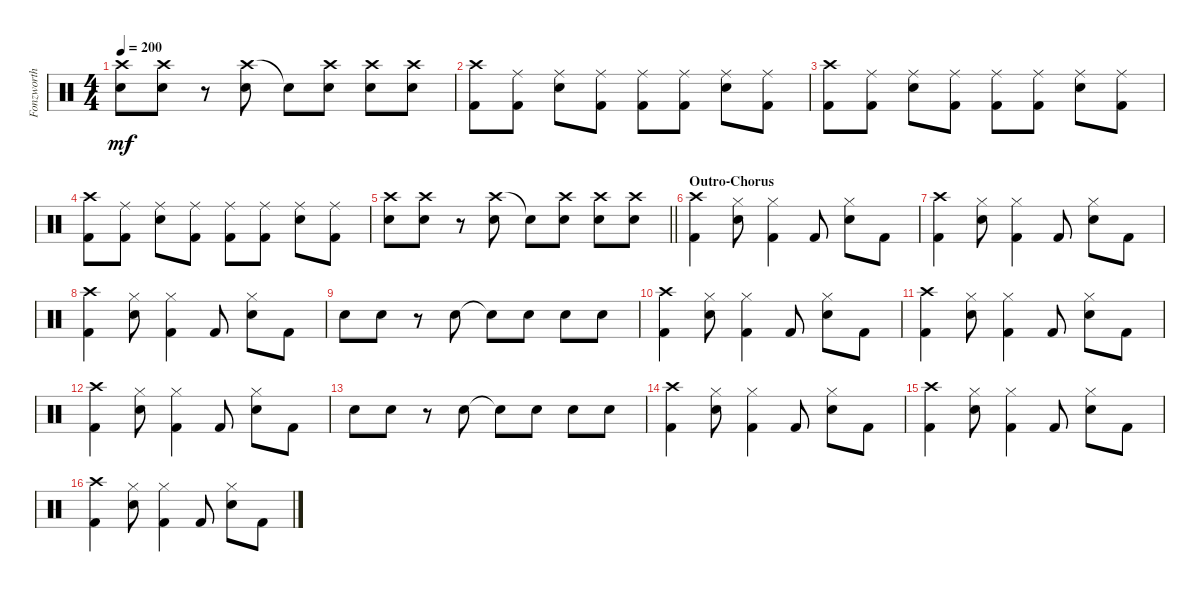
\track ("Fonzworth Fred" "Fonzworth ") {instrument percussion}
\staff {score}
\articulation defaults
\ts (4 4)
\tempo 200
\clef neutral
\ks c
("Crash high (hit)" "Snare (hit) 2").8{dy mf} ("Crash high (hit)" "Snare (hit) 2").8 r.8 ("Crash high (hit)" "Snare (hit) 2").8 "Snare (hit)"{t}.8 ("Crash high (hit)" "Snare (hit) 2").8 ("Crash high (hit)" "Snare (hit) 2").8 ("Crash high (hit)" "Snare (hit) 2").8 |
("Crash high (hit)" "Kick (hit) 2").8 ("Ride (middle)" "Kick (hit) 2").8 ("Ride (middle)" "Snare (hit) 2").8 ("Ride (middle)" "Kick (hit) 2").8 ("Ride (middle)" "Kick (hit) 2").8 ("Ride (middle)" "Kick (hit) 2").8 ("Ride (middle)" "Snare (hit) 2").8 ("Ride (middle)" "Kick (hit) 2").8 |
("Crash high (hit)" "Kick (hit) 2").8 ("Ride (middle)" "Kick (hit) 2").8 ("Ride (middle)" "Snare (hit) 2").8 ("Ride (middle)" "Kick (hit) 2").8 ("Ride (middle)" "Kick (hit) 2").8 ("Ride (middle)" "Kick (hit) 2").8 ("Ride (middle)" "Snare (hit) 2").8 ("Ride (middle)" "Kick (hit) 2").8 |
("Crash high (hit)" "Kick (hit) 2").8 ("Ride (middle)" "Kick (hit) 2").8 ("Ride (middle)" "Snare (hit) 2").8 ("Ride (middle)" "Kick (hit) 2").8 ("Ride (middle)" "Kick (hit) 2").8 ("Ride (middle)" "Kick (hit) 2").8 ("Ride (middle)" "Snare (hit) 2").8 ("Ride (middle)" "Kick (hit) 2").8 |
\barLineRight lightlight
("Crash high (hit)" "Snare (hit) 2").8 ("Crash high (hit)" "Snare (hit) 2").8 r.8 ("Crash high (hit)" "Snare (hit) 2").8 "Snare (hit)"{t}.8 ("Crash high (hit)" "Snare (hit) 2").8 ("Crash high (hit)" "Snare (hit) 2").8 ("Crash high (hit)" "Snare (hit) 2").8 |
\section ("" "Outro-Chorus")
("Crash high (hit)" "Kick (hit) 2").4 ("Hi-Hat (closed)" "Snare (hit) 2").8 ("Hi-Hat (closed)" "Kick (hit) 2").4 "Kick (hit) 2".8 ("Hi-Hat (closed)" "Snare (hit) 2").8 "Kick (hit) 2".8 |
("Crash high (hit)" "Kick (hit) 2").4 ("Hi-Hat (closed)" "Snare (hit) 2").8 ("Hi-Hat (closed)" "Kick (hit) 2").4 "Kick (hit) 2".8 ("Hi-Hat (closed)" "Snare (hit) 2").8 "Kick (hit) 2".8 |
("Crash high (hit)" "Kick (hit) 2").4 ("Hi-Hat (closed)" "Snare (hit) 2").8 ("Hi-Hat (closed)" "Kick (hit) 2").4 "Kick (hit) 2".8 ("Hi-Hat (closed)" "Snare (hit) 2").8 "Kick (hit) 2".8 |
"Snare (hit) 2".8 "Snare (hit) 2".8 r.8 "Snare (hit) 2".8 "Snare (hit)"{t}.8 "Snare (hit) 2".8 "Snare (hit) 2".8 "Snare (hit) 2".8 |
("Crash high (hit)" "Kick (hit) 2").4 ("Hi-Hat (closed)" "Snare (hit) 2").8 ("Hi-Hat (closed)" "Kick (hit) 2").4 "Kick (hit) 2".8 ("Hi-Hat (closed)" "Snare (hit) 2").8 "Kick (hit) 2".8 |
("Crash high (hit)" "Kick (hit) 2").4 ("Hi-Hat (closed)" "Snare (hit) 2").8 ("Hi-Hat (closed)" "Kick (hit) 2").4 "Kick (hit) 2".8 ("Hi-Hat (closed)" "Snare (hit) 2").8 "Kick (hit) 2".8 |
("Crash high (hit)" "Kick (hit) 2").4 ("Hi-Hat (closed)" "Snare (hit) 2").8 ("Hi-Hat (closed)" "Kick (hit) 2").4 "Kick (hit) 2".8 ("Hi-Hat (closed)" "Snare (hit) 2").8 "Kick (hit) 2".8 |
"Snare (hit) 2".8 "Snare (hit) 2".8 r.8 "Snare (hit) 2".8 "Snare (hit)"{t}.8 "Snare (hit) 2".8 "Snare (hit) 2".8 "Snare (hit) 2".8 |
("Crash high (hit)" "Kick (hit) 2").4 ("Hi-Hat (closed)" "Snare (hit) 2").8 ("Hi-Hat (closed)" "Kick (hit) 2").4 "Kick (hit) 2".8 ("Hi-Hat (closed)" "Snare (hit) 2").8 "Kick (hit) 2".8 |
("Crash high (hit)" "Kick (hit) 2").4 ("Hi-Hat (closed)" "Snare (hit) 2").8 ("Hi-Hat (closed)" "Kick (hit) 2").4 "Kick (hit) 2".8 ("Hi-Hat (closed)" "Snare (hit) 2").8 "Kick (hit) 2".8 |
("Crash high (hit)" "Kick (hit) 2").4 ("Hi-Hat (closed)" "Snare (hit) 2").8 ("Hi-Hat (closed)" "Kick (hit) 2").4 "Kick (hit) 2".8 ("Hi-Hat (closed)" "Snare (hit) 2").8 "Kick (hit) 2".8
